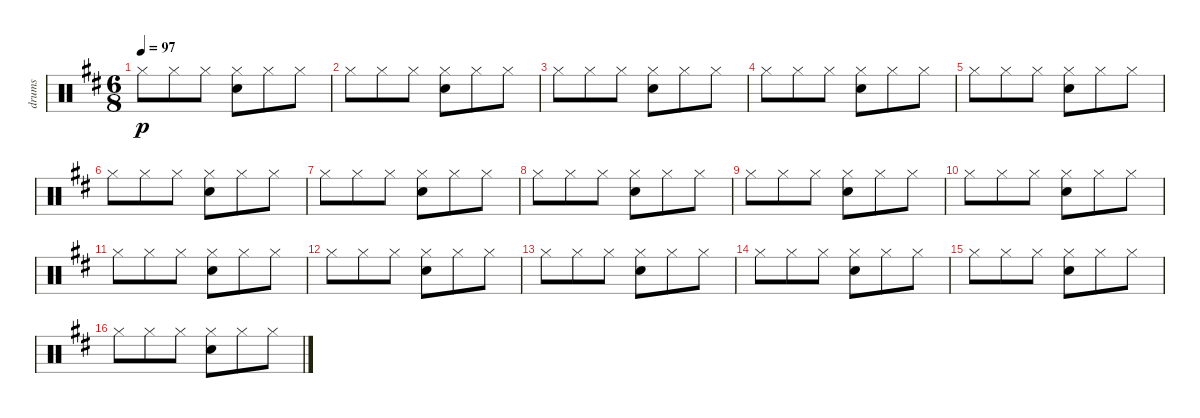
\track ("drums" "drums") {instrument percussion}
\staff {score}
\articulation defaults
\ts (6 8)
\tempo 97
\clef neutral
\ks d "Hi-Hat (closed)".8{dy p} "Hi-Hat (closed)".8 "Hi-Hat (closed)".8
("Hi-Hat (closed)" "Electric Snare (hit)").8 "Hi-Hat (closed)".8 "Hi-Hat (closed)".8 |
"Hi-Hat (closed)".8 "Hi-Hat (closed)".8 "Hi-Hat (closed)".8 ("Hi-Hat (closed)" "Electric Snare (hit)").8 "Hi-Hat (closed)".8 "Hi-Hat (closed)".8 |
"Hi-Hat (closed)".8 "Hi-Hat (closed)".8 "Hi-Hat (closed)".8 ("Hi-Hat (closed)" "Electric Snare (hit)").8 "Hi-Hat (closed)".8 "Hi-Hat (closed)".8 |
"Hi-Hat (closed)".8 "Hi-Hat (closed)".8 "Hi-Hat (closed)".8 ("Hi-Hat (closed)" "Electric Snare (hit)").8 "Hi-Hat (closed)".8 "Hi-Hat (closed)".8 |
"Hi-Hat (closed)".8 "Hi-Hat (closed)".8 "Hi-Hat (closed)".8 ("Hi-Hat (closed)" "Electric Snare (hit)").8 "Hi-Hat (closed)".8 "Hi-Hat (closed)".8 |
"Hi-Hat (closed)".8 "Hi-Hat (closed)".8 "Hi-Hat (closed)".8 ("Hi-Hat (closed)" "Electric Snare (hit)").8 "Hi-Hat (closed)".8 "Hi-Hat (closed)".8 |
"Hi-Hat (closed)".8 "Hi-Hat (closed)".8 "Hi-Hat (closed)".8 ("Hi-Hat (closed)" "Electric Snare (hit)").8 "Hi-Hat (closed)".8 "Hi-Hat (closed)".8 |
"Hi-Hat (closed)".8 "Hi-Hat (closed)".8 "Hi-Hat (closed)".8 ("Hi-Hat (closed)" "Electric Snare (hit)").8 "Hi-Hat (closed)".8 "Hi-Hat (closed)".8 |
"Hi-Hat (closed)".8 "Hi-Hat (closed)".8 "Hi-Hat (closed)".8 ("Hi-Hat (closed)" "Electric Snare (hit)").8 "Hi-Hat (closed)".8 "Hi-Hat (closed)".8 |
"Hi-Hat (closed)".8 "Hi-Hat (closed)".8 "Hi-Hat (closed)".8 ("Hi-Hat (closed)" "Electric Snare (hit)").8 "Hi-Hat (closed)".8 "Hi-Hat (closed)".8 |
"Hi-Hat (closed)".8 "Hi-Hat (closed)".8 "Hi-Hat (closed)".8 ("Hi-Hat (closed)" "Electric Snare (hit)").8 "Hi-Hat (closed)".8 "Hi-Hat (closed)".8 |
"Hi-Hat (closed)".8 "Hi-Hat (closed)".8 "Hi-Hat (closed)".8 ("Hi-Hat (closed)" "Electric Snare (hit)").8 "Hi-Hat (closed)".8 "Hi-Hat (closed)".8 |
"Hi-Hat (closed)".8 "Hi-Hat (closed)".8 "Hi-Hat (closed)".8 ("Hi-Hat (closed)" "Electric Snare (hit)").8 "Hi-Hat (closed)".8 "Hi-Hat (closed)".8 |
"Hi-Hat (closed)".8 "Hi-Hat (closed)".8 "Hi-Hat (closed)".8 ("Hi-Hat (closed)" "Electric Snare (hit)").8 "Hi-Hat (closed)".8 "Hi-Hat (closed)".8 |
"Hi-Hat (closed)".8 "Hi-Hat (closed)".8 "Hi-Hat (closed)".8 ("Hi-Hat (closed)" "Electric Snare (hit)").8 "Hi-Hat (closed)".8 "Hi-Hat (closed)".8 |
"Hi-Hat (closed)".8 "Hi-Hat (closed)".8 "Hi-Hat (closed)".8 ("Hi-Hat (closed)" "Electric Snare (hit)").8 "Hi-Hat (closed)".8 "Hi-Hat (closed)".8
